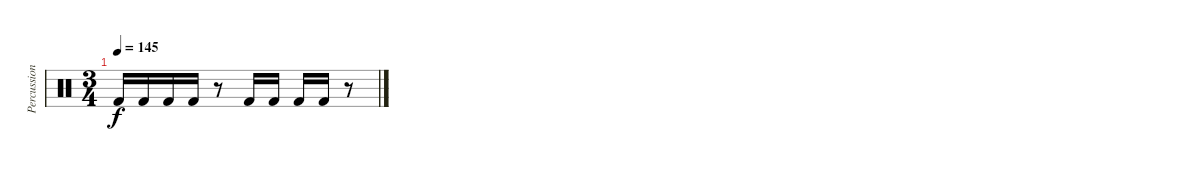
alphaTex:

\track ("Percussion" "Percussion") {instrument percussion}
\staff {score}
\articulation defaults
\ts (3 4)
\tempo 145
\clef neutral
\ks c "Kick (hit) 2".16{dy f} "Kick (hit) 2".16 "Kick (hit) 2".16 "Kick (hit) 2".16
r.8 "Kick (hit) 2".16 "Kick (hit) 2".16 "Kick (hit) 2".16 "Kick (hit) 2".16 r.8
